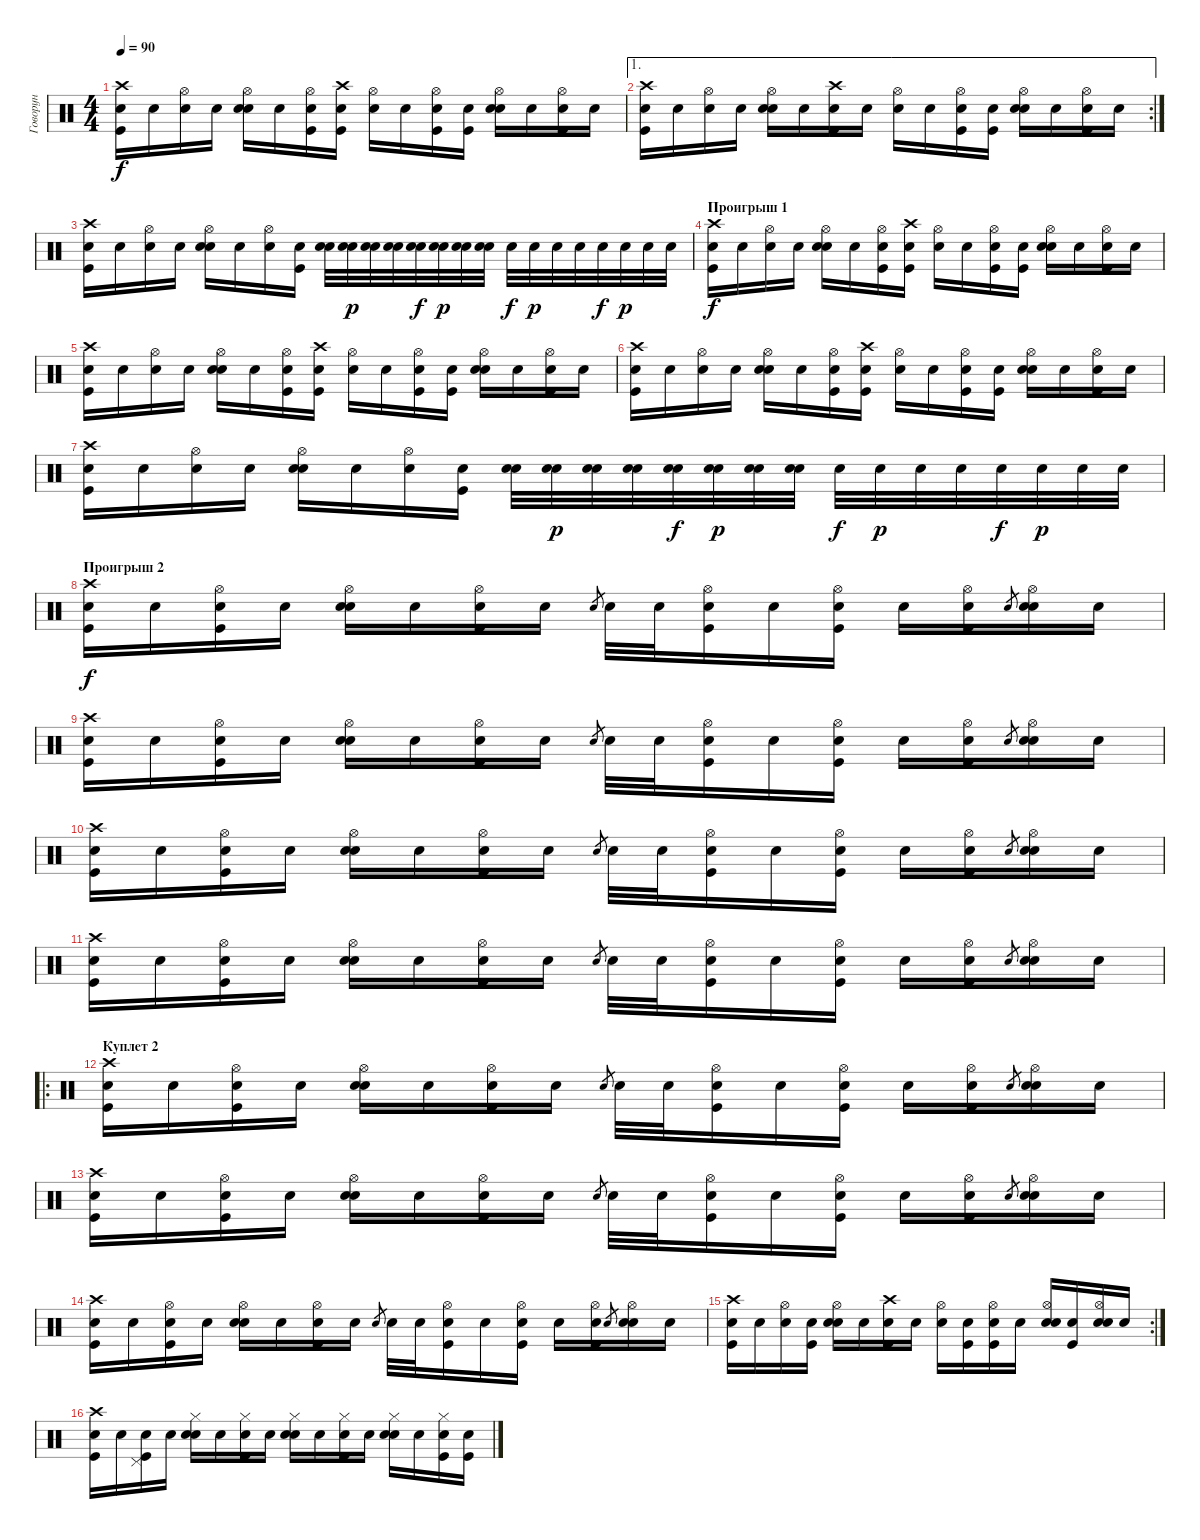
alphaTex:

\track ("Говорун" "Говорун") {instrument percussion}
\staff {score}
\articulation defaults
\ts (4 4)
\tempo 90
\clef neutral
\ks c
("Snare (hit)"{x} "Kick (hit)" "Crash high (hit)").16{dy f} "Snare (hit)"{x}.16 ("Snare (hit)"{x} "Hi-Hat (open)").16 "Snare (hit)"{x}.16 ("Snare (hit)"{x} "Snare (hit) 2" "Hi-Hat (open)").16 "Snare (hit)"{x}.16 ("Snare (hit)"{x} "Kick (hit)" "Hi-Hat (open)").16 ("Snare (hit)"{x} "Kick (hit)" "Crash high (hit)").16 ("Snare (hit)"{x} "Hi-Hat (open)").16 "Snare (hit)"{x}.16 ("Snare (hit)"{x} "Kick (hit)" "Hi-Hat (open)").16 ("Snare (hit)"{x} "Kick (hit)").16 ("Snare (hit)"{x} "Snare (hit) 2" "Hi-Hat (open)").16 "Snare (hit)"{x}.16 ("Snare (hit)"{x} "Kick (hit)" "Hi-Hat (open)").16 "Snare (hit)"{x}.16 |
\ae 1
\rc 2
("Snare (hit)"{x} "Kick (hit)" "Crash high (hit)").16 "Snare (hit)"{x}.16 ("Snare (hit)"{x} "Hi-Hat (open)").16 "Snare (hit)"{x}.16 ("Snare (hit)"{x} "Snare (hit) 2" "Hi-Hat (open)").16 "Snare (hit)"{x}.16 ("Snare (hit)"{x} "Crash high (hit)" "Kick (hit)").16 "Snare (hit)"{x}.16 ("Snare (hit)"{x} "Hi-Hat (open)").16 "Snare (hit)"{x}.16 ("Snare (hit)"{x} "Kick (hit)" "Hi-Hat (open)").16 ("Snare (hit)"{x} "Kick (hit)").16 ("Snare (hit)"{x} "Snare (hit) 2" "Hi-Hat (open)").16 "Snare (hit)"{x}.16 ("Snare (hit)"{x} "Kick (hit)" "Hi-Hat (open)").16 "Snare (hit)"{x}.16 |
("Snare (hit)"{x} "Kick (hit)" "Crash high (hit)").16 "Snare (hit)"{x}.16 ("Snare (hit)"{x} "Hi-Hat (open)").16 "Snare (hit)"{x}.16 ("Snare (hit)"{x} "Snare (hit) 2" "Hi-Hat (open)").16 "Snare (hit)"{x}.16 ("Snare (hit)"{x} "Hi-Hat (open)").16 ("Snare (hit)"{x} "Kick (hit)").16 ("Snare (hit)"{x} "Snare (hit) 2").32 ("Snare (hit)"{x} "Snare (hit) 2").32{dy p} ("Snare (hit)"{x} "Snare (hit) 2").32 ("Snare (hit)"{x} "Snare (hit) 2").32 ("Snare (hit)"{x} "Snare (hit) 2").32{dy f} ("Snare (hit)"{x} "Snare (hit) 2").32{dy p} ("Snare (hit)"{x} "Snare (hit) 2").32 ("Snare (hit)"{x} "Snare (hit) 2").32 "Snare (hit) 2".32{dy f} "Snare (hit) 2".32{dy p} "Snare (hit) 2".32 "Snare (hit) 2".32 "Snare (hit) 2".32{dy f} "Snare (hit) 2".32{dy p} "Snare (hit) 2".32 "Snare (hit) 2".32 |
\section ("" "Проигрыш 1")
("Snare (hit)"{x} "Kick (hit)" "Crash high (hit)").16{dy f} "Snare (hit)"{x}.16 ("Snare (hit)"{x} "Hi-Hat (open)").16 "Snare (hit)"{x}.16 ("Snare (hit)"{x} "Snare (hit) 2" "Hi-Hat (open)").16 "Snare (hit)"{x}.16 ("Snare (hit)"{x} "Kick (hit)" "Hi-Hat (open)").16 ("Snare (hit)"{x} "Kick (hit)" "Crash high (hit)").16 ("Snare (hit)"{x} "Hi-Hat (open)").16 "Snare (hit)"{x}.16 ("Snare (hit)"{x} "Kick (hit)" "Hi-Hat (open)").16 ("Snare (hit)"{x} "Kick (hit)").16 ("Snare (hit)"{x} "Snare (hit) 2" "Hi-Hat (open)").16 "Snare (hit)"{x}.16 ("Snare (hit)"{x} "Kick (hit)" "Hi-Hat (open)").16 "Snare (hit)"{x}.16 |
("Snare (hit)"{x} "Kick (hit)" "Crash high (hit)").16 "Snare (hit)"{x}.16 ("Snare (hit)"{x} "Hi-Hat (open)").16 "Snare (hit)"{x}.16 ("Snare (hit)"{x} "Snare (hit) 2" "Hi-Hat (open)").16 "Snare (hit)"{x}.16 ("Snare (hit)"{x} "Kick (hit)" "Hi-Hat (open)").16 ("Snare (hit)"{x} "Kick (hit)" "Crash high (hit)").16 ("Snare (hit)"{x} "Hi-Hat (open)").16 "Snare (hit)"{x}.16 ("Snare (hit)"{x} "Kick (hit)" "Hi-Hat (open)").16 ("Snare (hit)"{x} "Kick (hit)").16 ("Snare (hit)"{x} "Snare (hit) 2" "Hi-Hat (open)").16 "Snare (hit)"{x}.16 ("Snare (hit)"{x} "Kick (hit)" "Hi-Hat (open)").16 "Snare (hit)"{x}.16 |
("Snare (hit)"{x} "Kick (hit)" "Crash high (hit)").16 "Snare (hit)"{x}.16 ("Snare (hit)"{x} "Hi-Hat (open)").16 "Snare (hit)"{x}.16 ("Snare (hit)"{x} "Snare (hit) 2" "Hi-Hat (open)").16 "Snare (hit)"{x}.16 ("Snare (hit)"{x} "Kick (hit)" "Hi-Hat (open)").16 ("Snare (hit)"{x} "Kick (hit)" "Crash high (hit)").16 ("Snare (hit)"{x} "Hi-Hat (open)").16 "Snare (hit)"{x}.16 ("Snare (hit)"{x} "Kick (hit)" "Hi-Hat (open)").16 ("Snare (hit)"{x} "Kick (hit)").16 ("Snare (hit)"{x} "Snare (hit) 2" "Hi-Hat (open)").16 "Snare (hit)"{x}.16 ("Snare (hit)"{x} "Kick (hit)" "Hi-Hat (open)").16 "Snare (hit)"{x}.16 |
("Snare (hit)"{x} "Kick (hit)" "Crash high (hit)").16 "Snare (hit)"{x}.16 ("Snare (hit)"{x} "Hi-Hat (open)").16 "Snare (hit)"{x}.16 ("Snare (hit)"{x} "Snare (hit) 2" "Hi-Hat (open)").16 "Snare (hit)"{x}.16 ("Snare (hit)"{x} "Hi-Hat (open)").16 ("Snare (hit)"{x} "Kick (hit)").16 ("Snare (hit)"{x} "Snare (hit) 2").32 ("Snare (hit)"{x} "Snare (hit) 2").32{dy p} ("Snare (hit)"{x} "Snare (hit) 2").32 ("Snare (hit)"{x} "Snare (hit) 2").32 ("Snare (hit)"{x} "Snare (hit) 2").32{dy f} ("Snare (hit)"{x} "Snare (hit) 2").32{dy p} ("Snare (hit)"{x} "Snare (hit) 2").32 ("Snare (hit)"{x} "Snare (hit) 2").32 "Snare (hit) 2".32{dy f} "Snare (hit) 2".32{dy p} "Snare (hit) 2".32 "Snare (hit) 2".32 "Snare (hit) 2".32{dy f} "Snare (hit) 2".32{dy p} "Snare (hit) 2".32 "Snare (hit) 2".32 |
\section ("" "Проигрыш 2")
("Snare (hit)"{x} "Kick (hit)" "Crash high (hit)").16{dy f} "Snare (hit)"{x}.16 ("Snare (hit)"{x} "Kick (hit)" "Hi-Hat (open)").16 "Snare (hit)"{x}.16 ("Snare (hit)"{x} "Electric Snare (hit)" "Hi-Hat (open)").16 "Snare (hit)"{x}.16 ("Snare (hit)"{x} "Kick (hit)" "Hi-Hat (open)").16 "Snare (hit)"{x}.16 "Electric Snare (hit)".8{gr} "Electric Snare (hit)".32 "Electric Snare (hit)".32 ("Snare (hit)"{x} "Kick (hit)" "Hi-Hat (open)").16 "Snare (hit)"{x}.16 ("Snare (hit)"{x} "Kick (hit)" "Hi-Hat (open)").16 "Snare (hit)"{x}.16 ("Snare (hit)"{x} "Kick (hit)" "Hi-Hat (open)").16 "Electric Snare (hit)".8{gr} ("Snare (hit)"{x} "Electric Snare (hit)" "Hi-Hat (open)").16 "Snare (hit)"{x}.16 |
("Snare (hit)"{x} "Kick (hit)" "Crash high (hit)").16 "Snare (hit)"{x}.16 ("Snare (hit)"{x} "Kick (hit)" "Hi-Hat (open)").16 "Snare (hit)"{x}.16 ("Snare (hit)"{x} "Electric Snare (hit)" "Hi-Hat (open)").16 "Snare (hit)"{x}.16 ("Snare (hit)"{x} "Kick (hit)" "Hi-Hat (open)").16 "Snare (hit)"{x}.16 "Electric Snare (hit)".8{gr} "Electric Snare (hit)".32 "Electric Snare (hit)".32 ("Snare (hit)"{x} "Kick (hit)" "Hi-Hat (open)").16 "Snare (hit)"{x}.16 ("Snare (hit)"{x} "Kick (hit)" "Hi-Hat (open)").16 "Snare (hit)"{x}.16 ("Snare (hit)"{x} "Kick (hit)" "Hi-Hat (open)").16 "Electric Snare (hit)".8{gr} ("Snare (hit)"{x} "Electric Snare (hit)" "Hi-Hat (open)").16 "Snare (hit)"{x}.16 |
("Snare (hit)"{x} "Kick (hit)" "Crash high (hit)").16 "Snare (hit)"{x}.16 ("Snare (hit)"{x} "Kick (hit)" "Hi-Hat (open)").16 "Snare (hit)"{x}.16 ("Snare (hit)"{x} "Electric Snare (hit)" "Hi-Hat (open)").16 "Snare (hit)"{x}.16 ("Snare (hit)"{x} "Kick (hit)" "Hi-Hat (open)").16 "Snare (hit)"{x}.16 "Electric Snare (hit)".8{gr} "Electric Snare (hit)".32 "Electric Snare (hit)".32 ("Snare (hit)"{x} "Kick (hit)" "Hi-Hat (open)").16 "Snare (hit)"{x}.16 ("Snare (hit)"{x} "Kick (hit)" "Hi-Hat (open)").16 "Snare (hit)"{x}.16 ("Snare (hit)"{x} "Kick (hit)" "Hi-Hat (open)").16 "Electric Snare (hit)".8{gr} ("Snare (hit)"{x} "Electric Snare (hit)" "Hi-Hat (open)").16 "Snare (hit)"{x}.16 |
("Snare (hit)"{x} "Kick (hit)" "Crash high (hit)").16 "Snare (hit)"{x}.16 ("Snare (hit)"{x} "Kick (hit)" "Hi-Hat (open)").16 "Snare (hit)"{x}.16 ("Snare (hit)"{x} "Electric Snare (hit)" "Hi-Hat (open)").16 "Snare (hit)"{x}.16 ("Snare (hit)"{x} "Kick (hit)" "Hi-Hat (open)").16 "Snare (hit)"{x}.16 "Electric Snare (hit)".8{gr} "Electric Snare (hit)".32 "Electric Snare (hit)".32 ("Snare (hit)"{x} "Kick (hit)" "Hi-Hat (open)").16 "Snare (hit)"{x}.16 ("Snare (hit)"{x} "Kick (hit)" "Hi-Hat (open)").16 "Snare (hit)"{x}.16 ("Snare (hit)"{x} "Kick (hit)" "Hi-Hat (open)").16 "Electric Snare (hit)".8{gr} ("Snare (hit)"{x} "Electric Snare (hit)" "Hi-Hat (open)").16 "Snare (hit)"{x}.16 |
\ro
\section ("" "Куплет 2")
("Snare (hit)"{x} "Kick (hit)" "Crash high (hit)").16 "Snare (hit)"{x}.16 ("Snare (hit)"{x} "Kick (hit)" "Hi-Hat (open)").16 "Snare (hit)"{x}.16 ("Snare (hit)"{x} "Electric Snare (hit)" "Hi-Hat (open)").16 "Snare (hit)"{x}.16 ("Snare (hit)"{x} "Kick (hit)" "Hi-Hat (open)").16 "Snare (hit)"{x}.16 "Electric Snare (hit)".8{gr} "Electric Snare (hit)".32 "Electric Snare (hit)".32 ("Snare (hit)"{x} "Kick (hit)" "Hi-Hat (open)").16 "Snare (hit)"{x}.16 ("Snare (hit)"{x} "Kick (hit)" "Hi-Hat (open)").16 "Snare (hit)"{x}.16 ("Snare (hit)"{x} "Kick (hit)" "Hi-Hat (open)").16 "Electric Snare (hit)".8{gr} ("Snare (hit)"{x} "Electric Snare (hit)" "Hi-Hat (open)").16 "Snare (hit)"{x}.16 |
("Snare (hit)"{x} "Kick (hit)" "Crash high (hit)").16 "Snare (hit)"{x}.16 ("Snare (hit)"{x} "Kick (hit)" "Hi-Hat (open)").16 "Snare (hit)"{x}.16 ("Snare (hit)"{x} "Electric Snare (hit)" "Hi-Hat (open)").16 "Snare (hit)"{x}.16 ("Snare (hit)"{x} "Kick (hit)" "Hi-Hat (open)").16 "Snare (hit)"{x}.16 "Electric Snare (hit)".8{gr} "Electric Snare (hit)".32 "Electric Snare (hit)".32 ("Snare (hit)"{x} "Kick (hit)" "Hi-Hat (open)").16 "Snare (hit)"{x}.16 ("Snare (hit)"{x} "Kick (hit)" "Hi-Hat (open)").16 "Snare (hit)"{x}.16 ("Snare (hit)"{x} "Kick (hit)" "Hi-Hat (open)").16 "Electric Snare (hit)".8{gr} ("Snare (hit)"{x} "Electric Snare (hit)" "Hi-Hat (open)").16 "Snare (hit)"{x}.16 |
("Snare (hit)"{x} "Kick (hit)" "Crash high (hit)").16 "Snare (hit)"{x}.16 ("Snare (hit)"{x} "Kick (hit)" "Hi-Hat (open)").16 "Snare (hit)"{x}.16 ("Snare (hit)"{x} "Electric Snare (hit)" "Hi-Hat (open)").16 "Snare (hit)"{x}.16 ("Snare (hit)"{x} "Kick (hit)" "Hi-Hat (open)").16 "Snare (hit)"{x}.16 "Electric Snare (hit)".8{gr} "Electric Snare (hit)".32 "Electric Snare (hit)".32 ("Snare (hit)"{x} "Kick (hit)" "Hi-Hat (open)").16 "Snare (hit)"{x}.16 ("Snare (hit)"{x} "Kick (hit)" "Hi-Hat (open)").16 "Snare (hit)"{x}.16 ("Snare (hit)"{x} "Kick (hit)" "Hi-Hat (open)").16 "Electric Snare (hit)".8{gr} ("Snare (hit)"{x} "Electric Snare (hit)" "Hi-Hat (open)").16 "Snare (hit)"{x}.16 |
\rc 2
("Snare (hit)"{x} "Kick (hit)" "Crash high (hit)").16 "Snare (hit)"{x}.16 ("Snare (hit)"{x} "Hi-Hat (open)").16 ("Snare (hit)"{x} "Kick (hit)").16 ("Snare (hit)"{x} "Electric Snare (hit)" "Hi-Hat (open)").16 "Snare (hit)"{x}.16 ("Snare (hit)"{x} "Kick (hit)" "Crash high (hit)").16 "Snare (hit)"{x}.16 ("Snare (hit)"{x} "Hi-Hat (open)").16 ("Snare (hit)"{x} "Kick (hit)").16 ("Snare (hit)"{x} "Kick (hit)" "Hi-Hat (open)").16 "Snare (hit)"{x}.16 ("Snare (hit)"{x} "Electric Snare (hit)" "Hi-Hat (open)").16 ("Snare (hit)"{x} "Kick (hit)").16 ("Snare (hit)"{x} "Electric Snare (hit)" "Hi-Hat (open)").16 "Snare (hit)"{x}.16 |
\section ("" "")
("Snare (hit)"{x} "Kick (hit)" "Crash high (hit)").16 "Snare (hit)"{x}.16 ("Snare (hit)"{x} "Kick (hit)" "Pedal Hi-Hat (hit)").16 "Snare (hit)"{x}.16 ("Snare (hit)"{x} "Snare (hit) 2" "Hi-Hat (closed)").16 "Snare (hit)"{x}.16 ("Snare (hit)"{x} "Kick (hit)" "Hi-Hat (closed)").16 "Snare (hit)"{x}.16 ("Snare (hit)"{x} "Snare (hit) 2" "Hi-Hat (closed)").16 "Snare (hit)"{x}.16 ("Snare (hit)"{x} "Kick (hit)" "Hi-Hat (closed)").16 "Snare (hit)"{x}.16 ("Snare (hit)"{x} "Snare (hit) 2" "Hi-Hat (closed)").16 "Snare (hit)"{x}.16 ("Snare (hit)"{x} "Kick (hit)" "Hi-Hat (closed)").16 ("Snare (hit)"{x} "Kick (hit)").16
